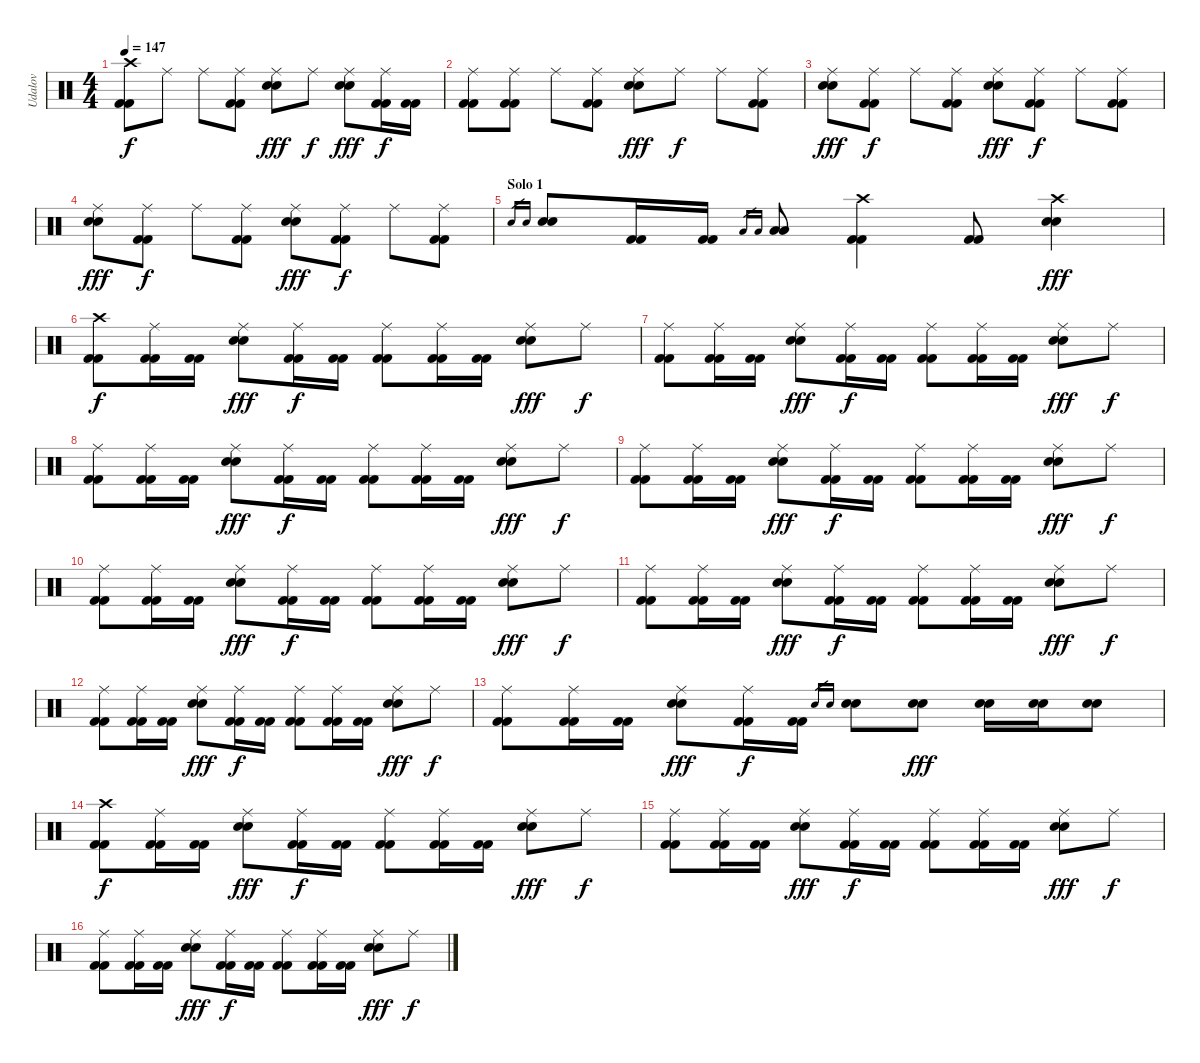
\track ("Udalov" "Udalov") {instrument percussion}
\staff {score}
\articulation defaults
\ts (4 4)
\tempo 147
\clef neutral
\ks c
("Crash high (hit)" "Kick (hit) 2" "Kick (hit) 2").8{dy f} "Ride (middle)".8 "Ride (middle)".8 ("Ride (middle)" "Kick (hit) 2" "Kick (hit) 2").8 ("Ride (middle)" "Electric Snare (hit)" "Electric Snare (hit)").8{dy fff} "Ride (middle)".8{dy f} ("Ride (middle)" "Electric Snare (hit)" "Electric Snare (hit)").8{dy fff} ("Ride (middle)" "Kick (hit) 2" "Kick (hit) 2").16{dy f} ("Kick (hit) 2" "Kick (hit) 2").16 |
("Ride (middle)" "Kick (hit) 2" "Kick (hit) 2").8 ("Ride (middle)" "Kick (hit) 2" "Kick (hit) 2").8 "Ride (middle)".8 ("Ride (middle)" "Kick (hit) 2" "Kick (hit) 2").8 ("Ride (middle)" "Electric Snare (hit)" "Electric Snare (hit)").8{dy fff} "Ride (middle)".8{dy f} "Ride (middle)".8 ("Ride (middle)" "Kick (hit) 2" "Kick (hit) 2").8 |
("Ride (middle)" "Electric Snare (hit)" "Electric Snare (hit)").8{dy fff} ("Ride (middle)" "Kick (hit) 2" "Kick (hit) 2").8{dy f} "Ride (middle)".8 ("Ride (middle)" "Kick (hit) 2" "Kick (hit) 2").8 ("Ride (middle)" "Electric Snare (hit)" "Electric Snare (hit)").8{dy fff} ("Ride (middle)" "Kick (hit) 2" "Kick (hit) 2").8{dy f} "Ride (middle)".8 ("Ride (middle)" "Kick (hit) 2" "Kick (hit) 2").8 |
("Ride (middle)" "Electric Snare (hit)" "Electric Snare (hit)").8{dy fff} ("Ride (middle)" "Kick (hit) 2" "Kick (hit) 2").8{dy f} "Ride (middle)".8 ("Ride (middle)" "Kick (hit) 2" "Kick (hit) 2").8 ("Ride (middle)" "Electric Snare (hit)" "Electric Snare (hit)").8{dy fff} ("Ride (middle)" "Kick (hit) 2" "Kick (hit) 2").8{dy f} "Ride (middle)".8 ("Ride (middle)" "Kick (hit) 2" "Kick (hit) 2").8 |
\section ("" "Solo 1")
"Electric Snare (hit)".16{gr} "Electric Snare (hit)".16{gr} ("Electric Snare (hit)" "Electric Snare (hit)").8 ("Kick (hit) 2" "Kick (hit) 2").16 ("Kick (hit) 2" "Kick (hit) 2").16 "Low Tom (hit)".16{gr} "Low Tom (hit)".16{gr} ("Low Tom (hit)" "Low Tom (hit)").8 ("Crash high (hit)" "Kick (hit) 2" "Kick (hit) 2").4 ("Kick (hit) 2" "Kick (hit) 2").8 ("Crash high (hit)" "Electric Snare (hit)" "Electric Snare (hit)").4{dy fff} |
("Crash high (hit)" "Kick (hit) 2" "Kick (hit) 2").8{dy f} ("Ride (middle)" "Kick (hit) 2" "Kick (hit) 2").16 ("Kick (hit) 2" "Kick (hit) 2").16 ("Ride (middle)" "Electric Snare (hit)" "Electric Snare (hit)").8{dy fff} ("Ride (middle)" "Kick (hit) 2" "Kick (hit) 2").16{dy f} ("Kick (hit) 2" "Kick (hit) 2").16 ("Ride (middle)" "Kick (hit) 2" "Kick (hit) 2").8 ("Ride (middle)" "Kick (hit) 2" "Kick (hit) 2").16 ("Kick (hit) 2" "Kick (hit) 2").16 ("Ride (middle)" "Electric Snare (hit)" "Electric Snare (hit)").8{dy fff} "Ride (middle)".8{dy f} |
("Ride (middle)" "Kick (hit) 2" "Kick (hit) 2").8 ("Ride (middle)" "Kick (hit) 2" "Kick (hit) 2").16 ("Kick (hit) 2" "Kick (hit) 2").16 ("Ride (middle)" "Electric Snare (hit)" "Electric Snare (hit)").8{dy fff} ("Ride (middle)" "Kick (hit) 2" "Kick (hit) 2").16{dy f} ("Kick (hit) 2" "Kick (hit) 2").16 ("Ride (middle)" "Kick (hit) 2" "Kick (hit) 2").8 ("Ride (middle)" "Kick (hit) 2" "Kick (hit) 2").16 ("Kick (hit) 2" "Kick (hit) 2").16 ("Ride (middle)" "Electric Snare (hit)" "Electric Snare (hit)").8{dy fff} "Ride (middle)".8{dy f} |
("Ride (middle)" "Kick (hit) 2" "Kick (hit) 2").8 ("Ride (middle)" "Kick (hit) 2" "Kick (hit) 2").16 ("Kick (hit) 2" "Kick (hit) 2").16 ("Ride (middle)" "Electric Snare (hit)" "Electric Snare (hit)").8{dy fff} ("Ride (middle)" "Kick (hit) 2" "Kick (hit) 2").16{dy f} ("Kick (hit) 2" "Kick (hit) 2").16 ("Ride (middle)" "Kick (hit) 2" "Kick (hit) 2").8 ("Ride (middle)" "Kick (hit) 2" "Kick (hit) 2").16 ("Kick (hit) 2" "Kick (hit) 2").16 ("Ride (middle)" "Electric Snare (hit)" "Electric Snare (hit)").8{dy fff} "Ride (middle)".8{dy f} |
("Ride (middle)" "Kick (hit) 2" "Kick (hit) 2").8 ("Ride (middle)" "Kick (hit) 2" "Kick (hit) 2").16 ("Kick (hit) 2" "Kick (hit) 2").16 ("Ride (middle)" "Electric Snare (hit)" "Electric Snare (hit)").8{dy fff} ("Ride (middle)" "Kick (hit) 2" "Kick (hit) 2").16{dy f} ("Kick (hit) 2" "Kick (hit) 2").16 ("Ride (middle)" "Kick (hit) 2" "Kick (hit) 2").8 ("Ride (middle)" "Kick (hit) 2" "Kick (hit) 2").16 ("Kick (hit) 2" "Kick (hit) 2").16 ("Ride (middle)" "Electric Snare (hit)" "Electric Snare (hit)").8{dy fff} "Ride (middle)".8{dy f} |
("Ride (middle)" "Kick (hit) 2" "Kick (hit) 2").8 ("Ride (middle)" "Kick (hit) 2" "Kick (hit) 2").16 ("Kick (hit) 2" "Kick (hit) 2").16 ("Ride (middle)" "Electric Snare (hit)" "Electric Snare (hit)").8{dy fff} ("Ride (middle)" "Kick (hit) 2" "Kick (hit) 2").16{dy f} ("Kick (hit) 2" "Kick (hit) 2").16 ("Ride (middle)" "Kick (hit) 2" "Kick (hit) 2").8 ("Ride (middle)" "Kick (hit) 2" "Kick (hit) 2").16 ("Kick (hit) 2" "Kick (hit) 2").16 ("Ride (middle)" "Electric Snare (hit)" "Electric Snare (hit)").8{dy fff} "Ride (middle)".8{dy f} |
("Ride (middle)" "Kick (hit) 2" "Kick (hit) 2").8 ("Ride (middle)" "Kick (hit) 2" "Kick (hit) 2").16 ("Kick (hit) 2" "Kick (hit) 2").16 ("Ride (middle)" "Electric Snare (hit)" "Electric Snare (hit)").8{dy fff} ("Ride (middle)" "Kick (hit) 2" "Kick (hit) 2").16{dy f} ("Kick (hit) 2" "Kick (hit) 2").16 ("Ride (middle)" "Kick (hit) 2" "Kick (hit) 2").8 ("Ride (middle)" "Kick (hit) 2" "Kick (hit) 2").16 ("Kick (hit) 2" "Kick (hit) 2").16 ("Ride (middle)" "Electric Snare (hit)" "Electric Snare (hit)").8{dy fff} "Ride (middle)".8{dy f} |
("Ride (middle)" "Kick (hit) 2" "Kick (hit) 2").8 ("Ride (middle)" "Kick (hit) 2" "Kick (hit) 2").16 ("Kick (hit) 2" "Kick (hit) 2").16 ("Ride (middle)" "Electric Snare (hit)" "Electric Snare (hit)").8{dy fff} ("Ride (middle)" "Kick (hit) 2" "Kick (hit) 2").16{dy f} ("Kick (hit) 2" "Kick (hit) 2").16 ("Ride (middle)" "Kick (hit) 2" "Kick (hit) 2").8 ("Ride (middle)" "Kick (hit) 2" "Kick (hit) 2").16 ("Kick (hit) 2" "Kick (hit) 2").16 ("Ride (middle)" "Electric Snare (hit)" "Electric Snare (hit)").8{dy fff} "Ride (middle)".8{dy f} |
("Ride (middle)" "Kick (hit) 2" "Kick (hit) 2").8 ("Ride (middle)" "Kick (hit) 2" "Kick (hit) 2").16 ("Kick (hit) 2" "Kick (hit) 2").16 ("Ride (middle)" "Electric Snare (hit)" "Electric Snare (hit)").8{dy fff} ("Ride (middle)" "Kick (hit) 2" "Kick (hit) 2").16{dy f} ("Kick (hit) 2" "Kick (hit) 2").16 "Electric Snare (hit)".16{gr} "Electric Snare (hit)".16{gr} ("Electric Snare (hit)" "Electric Snare (hit)").8 ("Electric Snare (hit)" "Electric Snare (hit)").8{dy fff} ("Electric Snare (hit)" "Electric Snare (hit)").16 ("Electric Snare (hit)" "Electric Snare (hit)").16 ("Electric Snare (hit)" "Electric Snare (hit)").8 |
("Crash high (hit)" "Kick (hit) 2" "Kick (hit) 2").8{dy f} ("Ride (middle)" "Kick (hit) 2" "Kick (hit) 2").16 ("Kick (hit) 2" "Kick (hit) 2").16 ("Ride (middle)" "Electric Snare (hit)" "Electric Snare (hit)").8{dy fff} ("Ride (middle)" "Kick (hit) 2" "Kick (hit) 2").16{dy f} ("Kick (hit) 2" "Kick (hit) 2").16 ("Ride (middle)" "Kick (hit) 2" "Kick (hit) 2").8 ("Ride (middle)" "Kick (hit) 2" "Kick (hit) 2").16 ("Kick (hit) 2" "Kick (hit) 2").16 ("Ride (middle)" "Electric Snare (hit)" "Electric Snare (hit)").8{dy fff} "Ride (middle)".8{dy f} |
("Ride (middle)" "Kick (hit) 2" "Kick (hit) 2").8 ("Ride (middle)" "Kick (hit) 2" "Kick (hit) 2").16 ("Kick (hit) 2" "Kick (hit) 2").16 ("Ride (middle)" "Electric Snare (hit)" "Electric Snare (hit)").8{dy fff} ("Ride (middle)" "Kick (hit) 2" "Kick (hit) 2").16{dy f} ("Kick (hit) 2" "Kick (hit) 2").16 ("Ride (middle)" "Kick (hit) 2" "Kick (hit) 2").8 ("Ride (middle)" "Kick (hit) 2" "Kick (hit) 2").16 ("Kick (hit) 2" "Kick (hit) 2").16 ("Ride (middle)" "Electric Snare (hit)" "Electric Snare (hit)").8{dy fff} "Ride (middle)".8{dy f} |
("Ride (middle)" "Kick (hit) 2" "Kick (hit) 2").8 ("Ride (middle)" "Kick (hit) 2" "Kick (hit) 2").16 ("Kick (hit) 2" "Kick (hit) 2").16 ("Ride (middle)" "Electric Snare (hit)" "Electric Snare (hit)").8{dy fff} ("Ride (middle)" "Kick (hit) 2" "Kick (hit) 2").16{dy f} ("Kick (hit) 2" "Kick (hit) 2").16 ("Ride (middle)" "Kick (hit) 2" "Kick (hit) 2").8 ("Ride (middle)" "Kick (hit) 2" "Kick (hit) 2").16 ("Kick (hit) 2" "Kick (hit) 2").16 ("Ride (middle)" "Electric Snare (hit)" "Electric Snare (hit)").8{dy fff} "Ride (middle)".8{dy f}
